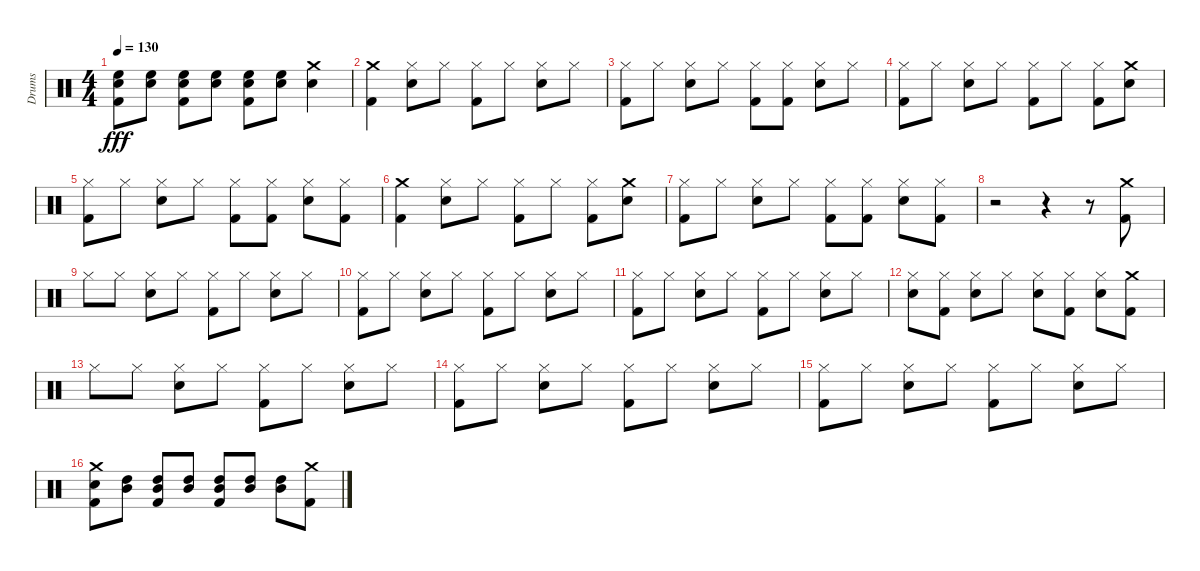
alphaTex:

\track ("Drums" "Drums") {instrument percussion}
\staff {score}
\articulation defaults
\ts (4 4)
\tempo 130
\clef neutral
\ks c
("Kick (hit) 2" "Snare (hit) 2" "High Floor Tom (hit)").8{dy fff} ("Snare (hit) 2" "High Floor Tom (hit)").8 ("Kick (hit) 2" "Snare (hit) 2" "High Floor Tom (hit)").8 ("Snare (hit) 2" "High Floor Tom (hit)").8 ("Kick (hit) 2" "Snare (hit) 2" "High Floor Tom (hit)").8 ("Snare (hit) 2" "High Floor Tom (hit)").8 ("Crash medium (hit)" "Snare (hit) 2").4 |
("Kick (hit) 2" "Crash medium (hit)").4 ("Snare (hit) 2" "Hi-Hat (closed)").8 "Hi-Hat (closed)".8 ("Hi-Hat (closed)" "Kick (hit) 2").8 "Hi-Hat (closed)".8 ("Snare (hit) 2" "Hi-Hat (closed)").8 "Hi-Hat (closed)".8 |
("Hi-Hat (closed)" "Kick (hit) 2").8 "Hi-Hat (closed)".8 ("Snare (hit) 2" "Hi-Hat (closed)").8 "Hi-Hat (closed)".8 ("Kick (hit) 2" "Hi-Hat (closed)").8 ("Kick (hit) 2" "Hi-Hat (closed)").8 ("Snare (hit) 2" "Hi-Hat (closed)").8 "Hi-Hat (closed)".8 |
("Hi-Hat (closed)" "Kick (hit) 2").8 "Hi-Hat (closed)".8 ("Snare (hit) 2" "Hi-Hat (closed)").8 "Hi-Hat (closed)".8 ("Hi-Hat (closed)" "Kick (hit) 2").8 "Hi-Hat (closed)".8 ("Hi-Hat (closed)" "Kick (hit) 2").8 ("Crash medium (hit)" "Snare (hit) 2").8 |
("Hi-Hat (closed)" "Kick (hit) 2").8 "Hi-Hat (closed)".8 ("Snare (hit) 2" "Hi-Hat (closed)").8 "Hi-Hat (closed)".8 ("Kick (hit) 2" "Hi-Hat (closed)").8 ("Kick (hit) 2" "Hi-Hat (closed)").8 ("Snare (hit) 2" "Hi-Hat (closed)").8 ("Kick (hit) 2" "Hi-Hat (closed)").8 |
("Kick (hit) 2" "Crash medium (hit)").4 ("Hi-Hat (closed)" "Snare (hit) 2").8 "Hi-Hat (closed)".8 ("Kick (hit) 2" "Hi-Hat (closed)").8 "Hi-Hat (closed)".8 ("Kick (hit) 2" "Hi-Hat (closed)").8 ("Crash medium (hit)" "Snare (hit) 2").8 |
("Kick (hit) 2" "Hi-Hat (closed)").8 "Hi-Hat (closed)".8 ("Snare (hit) 2" "Hi-Hat (closed)").8 "Hi-Hat (closed)".8 ("Kick (hit) 2" "Hi-Hat (closed)").8 ("Kick (hit) 2" "Hi-Hat (closed)").8 ("Snare (hit) 2" "Hi-Hat (closed)").8 ("Kick (hit) 2" "Hi-Hat (closed)").8 |
r.2 r.4 r.8 ("Kick (hit) 2" "Crash medium (hit)").8 |
"Hi-Hat (closed)".8 "Hi-Hat (closed)".8 ("Snare (hit) 2" "Hi-Hat (closed)").8 "Hi-Hat (closed)".8 ("Kick (hit) 2" "Hi-Hat (closed)").8 "Hi-Hat (closed)".8 ("Snare (hit) 2" "Hi-Hat (closed)").8 "Hi-Hat (closed)".8 |
("Hi-Hat (closed)" "Kick (hit) 2").8 "Hi-Hat (closed)".8 ("Snare (hit) 2" "Hi-Hat (closed)").8 "Hi-Hat (closed)".8 ("Kick (hit) 2" "Hi-Hat (closed)").8 "Hi-Hat (closed)".8 ("Snare (hit) 2" "Hi-Hat (closed)").8 "Hi-Hat (closed)".8 |
("Hi-Hat (closed)" "Kick (hit) 2").8 "Hi-Hat (closed)".8 ("Snare (hit) 2" "Hi-Hat (closed)").8 "Hi-Hat (closed)".8 ("Kick (hit) 2" "Hi-Hat (closed)").8 "Hi-Hat (closed)".8 ("Snare (hit) 2" "Hi-Hat (closed)").8 "Hi-Hat (closed)".8 |
("Snare (hit) 2" "Hi-Hat (closed)").8 ("Kick (hit) 2" "Hi-Hat (closed)").8 ("Snare (hit) 2" "Hi-Hat (closed)").8 "Hi-Hat (closed)".8 ("Snare (hit) 2" "Hi-Hat (closed)").8 ("Kick (hit) 2" "Hi-Hat (closed)").8 ("Snare (hit) 2" "Hi-Hat (closed)").8 ("Kick (hit) 2" "Crash medium (hit)").8 |
"Hi-Hat (closed)".8 "Hi-Hat (closed)".8 ("Snare (hit) 2" "Hi-Hat (closed)").8 "Hi-Hat (closed)".8 ("Kick (hit) 2" "Hi-Hat (closed)").8 "Hi-Hat (closed)".8 ("Snare (hit) 2" "Hi-Hat (closed)").8 "Hi-Hat (closed)".8 |
("Hi-Hat (closed)" "Kick (hit) 2").8 "Hi-Hat (closed)".8 ("Snare (hit) 2" "Hi-Hat (closed)").8 "Hi-Hat (closed)".8 ("Kick (hit) 2" "Hi-Hat (closed)").8 "Hi-Hat (closed)".8 ("Snare (hit) 2" "Hi-Hat (closed)").8 "Hi-Hat (closed)".8 |
("Hi-Hat (closed)" "Kick (hit) 2").8 "Hi-Hat (closed)".8 ("Snare (hit) 2" "Hi-Hat (closed)").8 "Hi-Hat (closed)".8 ("Kick (hit) 2" "Hi-Hat (closed)").8 "Hi-Hat (closed)".8 ("Snare (hit) 2" "Hi-Hat (closed)").8 "Hi-Hat (closed)".8 |
("Kick (hit) 2" "Snare (hit) 2" "Crash medium (hit)").8 ("High Tom (hit)" "Mid Tom (hit)").8 ("Kick (hit) 2" "High Tom (hit)" "Mid Tom (hit)").8 ("High Tom (hit)" "Mid Tom (hit)").8 ("Kick (hit) 2" "High Tom (hit)" "Mid Tom (hit)").8 ("High Tom (hit)" "Mid Tom (hit)").8 ("High Tom (hit)" "Mid Tom (hit)").8 ("Crash medium (hit)" "Kick (hit) 2").8
